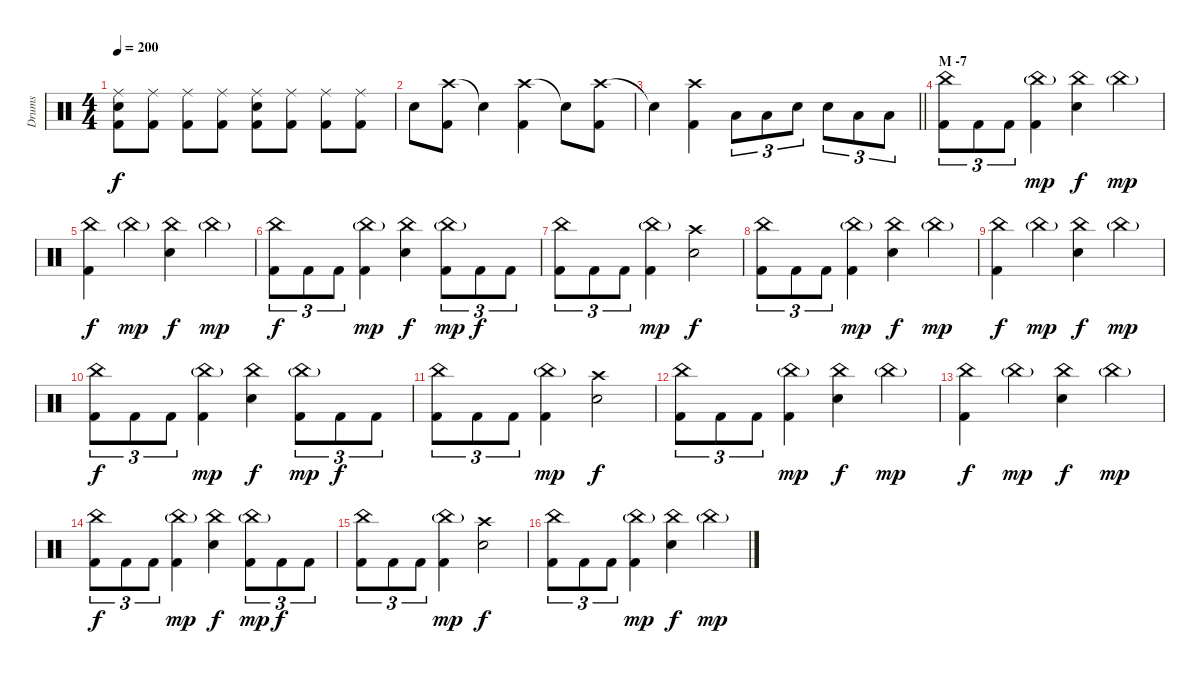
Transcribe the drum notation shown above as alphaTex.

\track ("Drums" "Drums") {instrument percussion}
\staff {score}
\articulation defaults
\ts (4 4)
\tempo 200
\clef neutral
\ks c
("Ride (middle)" "Snare (hit) 2" "Kick (hit) 2").8{dy f} ("Ride (middle)" "Kick (hit) 2").8 ("Ride (middle)" "Kick (hit) 2").8 ("Ride (middle)" "Kick (hit) 2").8 ("Ride (middle)" "Snare (hit) 2" "Kick (hit) 2").8 ("Ride (middle)" "Kick (hit) 2").8 ("Ride (middle)" "Kick (hit) 2").8 ("Ride (middle)" "Kick (hit) 2").8 |
"Snare (hit) 2".8 ("Crash high (hit)" "Kick (hit) 2").8 "Snare (hit)"{t}.4 ("Crash high (hit)" "Kick (hit) 2").4 "Snare (hit)"{t}.8 ("Crash high (hit)" "Kick (hit) 2").8 |
\barLineRight lightlight "Snare (hit)"{t}.4
("Crash high (hit)" "Kick (hit) 2").4 "Low Tom (hit)".8{tu (3 2)} "Low Tom (hit)".8{tu (3 2)} "Snare (hit) 2".8{tu (3 2)} "Snare (hit) 2".8{tu (3 2)} "Low Tom (hit)".8{tu (3 2)} "Low Tom (hit)".8{tu (3 2)} |
\section ("" "M -7")
("China (hit)" "Kick (hit) 2").8{tu (3 2)} "Kick (hit) 2".8{tu (3 2)} "Kick (hit) 2".8{tu (3 2)} ("China (hit)"{g} "Kick (hit) 2").4{dy mp} ("China (hit)" "Snare (hit) 2").4{dy f} "China (hit)"{g}.4{dy mp} |
("China (hit)" "Kick (hit) 2").4{dy f} "China (hit)"{g}.4{dy mp} ("China (hit)" "Snare (hit) 2").4{dy f} "China (hit)"{g}.4{dy mp} |
("China (hit)" "Kick (hit) 2").8{tu (3 2) dy f} "Kick (hit) 2".8{tu (3 2)} "Kick (hit) 2".8{tu (3 2)} ("China (hit)"{g} "Kick (hit) 2").4{dy mp} ("China (hit)" "Snare (hit) 2").4{dy f} ("China (hit)"{g} "Kick (hit) 2").8{tu (3 2) dy mp} "Kick (hit) 2".8{tu (3 2) dy f} "Kick (hit) 2".8{tu (3 2)} |
("China (hit)" "Kick (hit) 2").8{tu (3 2)} "Kick (hit) 2".8{tu (3 2)} "Kick (hit) 2".8{tu (3 2)} ("China (hit)"{g} "Kick (hit) 2").4{dy mp} ("Crash high (hit)" "Snare (hit) 2").2{dy f} |
("China (hit)" "Kick (hit) 2").8{tu (3 2)} "Kick (hit) 2".8{tu (3 2)} "Kick (hit) 2".8{tu (3 2)} ("China (hit)"{g} "Kick (hit) 2").4{dy mp} ("China (hit)" "Snare (hit) 2").4{dy f} "China (hit)"{g}.4{dy mp} |
("China (hit)" "Kick (hit) 2").4{dy f} "China (hit)"{g}.4{dy mp} ("China (hit)" "Snare (hit) 2").4{dy f} "China (hit)"{g}.4{dy mp} |
("China (hit)" "Kick (hit) 2").8{tu (3 2) dy f} "Kick (hit) 2".8{tu (3 2)} "Kick (hit) 2".8{tu (3 2)} ("China (hit)"{g} "Kick (hit) 2").4{dy mp} ("China (hit)" "Snare (hit) 2").4{dy f} ("China (hit)"{g} "Kick (hit) 2").8{tu (3 2) dy mp} "Kick (hit) 2".8{tu (3 2) dy f} "Kick (hit) 2".8{tu (3 2)} |
("China (hit)" "Kick (hit) 2").8{tu (3 2)} "Kick (hit) 2".8{tu (3 2)} "Kick (hit) 2".8{tu (3 2)} ("China (hit)"{g} "Kick (hit) 2").4{dy mp} ("Crash high (hit)" "Snare (hit) 2").2{dy f} |
("China (hit)" "Kick (hit) 2").8{tu (3 2)} "Kick (hit) 2".8{tu (3 2)} "Kick (hit) 2".8{tu (3 2)} ("China (hit)"{g} "Kick (hit) 2").4{dy mp} ("China (hit)" "Snare (hit) 2").4{dy f} "China (hit)"{g}.4{dy mp} |
("China (hit)" "Kick (hit) 2").4{dy f} "China (hit)"{g}.4{dy mp} ("China (hit)" "Snare (hit) 2").4{dy f} "China (hit)"{g}.4{dy mp} |
("China (hit)" "Kick (hit) 2").8{tu (3 2) dy f} "Kick (hit) 2".8{tu (3 2)} "Kick (hit) 2".8{tu (3 2)} ("China (hit)"{g} "Kick (hit) 2").4{dy mp} ("China (hit)" "Snare (hit) 2").4{dy f} ("China (hit)"{g} "Kick (hit) 2").8{tu (3 2) dy mp} "Kick (hit) 2".8{tu (3 2) dy f} "Kick (hit) 2".8{tu (3 2)} |
("China (hit)" "Kick (hit) 2").8{tu (3 2)} "Kick (hit) 2".8{tu (3 2)} "Kick (hit) 2".8{tu (3 2)} ("China (hit)"{g} "Kick (hit) 2").4{dy mp} ("Crash high (hit)" "Snare (hit) 2").2{dy f} |
("China (hit)" "Kick (hit) 2").8{tu (3 2)} "Kick (hit) 2".8{tu (3 2)} "Kick (hit) 2".8{tu (3 2)} ("China (hit)"{g} "Kick (hit) 2").4{dy mp} ("China (hit)" "Snare (hit) 2").4{dy f} "China (hit)"{g}.4{dy mp}
